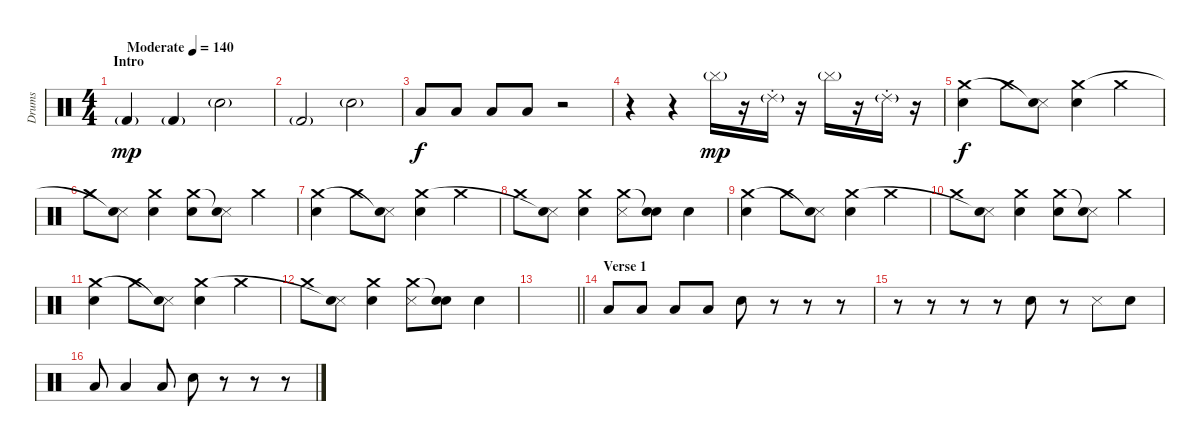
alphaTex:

\track ("Drums" "Drums") {instrument percussion}
\staff {score}
\articulation defaults
\ts (4 4)
\section ("" "Intro")
\tempo (140 "Moderate")
\clef neutral
\ks c "Kick (hit) 2"{g}.4{dy mp} "Kick (hit) 2"{g}.4 "Electric Snare (hit)"{g}.2
|
"Kick (hit) 2"{g}.2 "Electric Snare (hit)"{g}.2 |
"Low Floor Tom (hit)".8{dy f} "Low Floor Tom (hit)".8 "Low Floor Tom (hit)".8 "Low Floor Tom (hit)".8 r.2 |
r.4 r.4 "Cymbal (hit)"{g}.16{dy mp} r.16 "Ride (choke) 2"{g}.16 r.16 "Cymbal (hit)"{g}.16 r.16 "Ride (choke) 2"{g}.16 r.16 |
("Snare (hit) 2" "Crash medium (hit)").4{dy f} "Crash medium (hit)".8 ("Snare (side stick) 3" "Snare (hit)"{t}).8 ("Snare (hit) 2" "Crash medium (hit)").4 "Crash medium (hit)".4 |
"Crash medium (hit)".8 ("Snare (side stick) 3" "Snare (hit)"{t}).8 ("Snare (hit) 2" "Crash medium (hit)").4 ("Snare (hit) 2" "Crash medium (hit)").8 ("Snare (side stick) 3" "Snare (hit)"{t}).8 "Crash medium (hit)".4 |
("Snare (hit) 2" "Crash medium (hit)").4 "Crash medium (hit)".8 ("Snare (side stick) 3" "Snare (hit)"{t}).8 ("Snare (hit) 2" "Crash medium (hit)").4 "Crash medium (hit)".4 |
"Crash medium (hit)".8 ("Snare (side stick) 3" "Snare (hit)"{t}).8 ("Snare (hit) 2" "Crash medium (hit)").4 ("Snare (side stick) 3" "Crash medium (hit)").8 ("Snare (hit) 2" "Snare (hit)"{t}).8 "Snare (hit) 2".4 |
("Snare (hit) 2" "Crash medium (hit)").4 "Crash medium (hit)".8 ("Snare (side stick) 3" "Snare (hit)"{t}).8 ("Snare (hit) 2" "Crash medium (hit)").4 "Crash medium (hit)".4 |
"Crash medium (hit)".8 ("Snare (side stick) 3" "Snare (hit)"{t}).8 ("Snare (hit) 2" "Crash medium (hit)").4 ("Snare (hit) 2" "Crash medium (hit)").8 ("Snare (side stick) 3" "Snare (hit)"{t}).8 "Crash medium (hit)".4 |
("Snare (hit) 2" "Crash medium (hit)").4 "Crash medium (hit)".8 ("Snare (side stick) 3" "Snare (hit)"{t}).8 ("Snare (hit) 2" "Crash medium (hit)").4 "Crash medium (hit)".4 |
"Crash medium (hit)".8 ("Snare (side stick) 3" "Snare (hit)"{t}).8 ("Snare (hit) 2" "Crash medium (hit)").4 ("Snare (side stick) 3" "Crash medium (hit)").8 ("Snare (hit) 2" "Snare (hit)"{t}).8 "Snare (hit) 2".4 |
\barLineRight lightlight
|
\section ("" "Verse 1")
"Low Floor Tom (hit)".8 "Low Floor Tom (hit)".8 "Low Floor Tom (hit)".8 "Low Floor Tom (hit)".8 "Snare (hit) 2".8 r.8 r.8 r.8 |
r.8 r.8 r.8 r.8 "Snare (hit) 2".8 r.8 "Snare (side stick) 3".8 "Snare (hit) 2".8 |
"Low Floor Tom (hit)".8 "Low Floor Tom (hit)".4 "Low Floor Tom (hit)".8 "Snare (hit) 2".8 r.8 r.8 r.8
